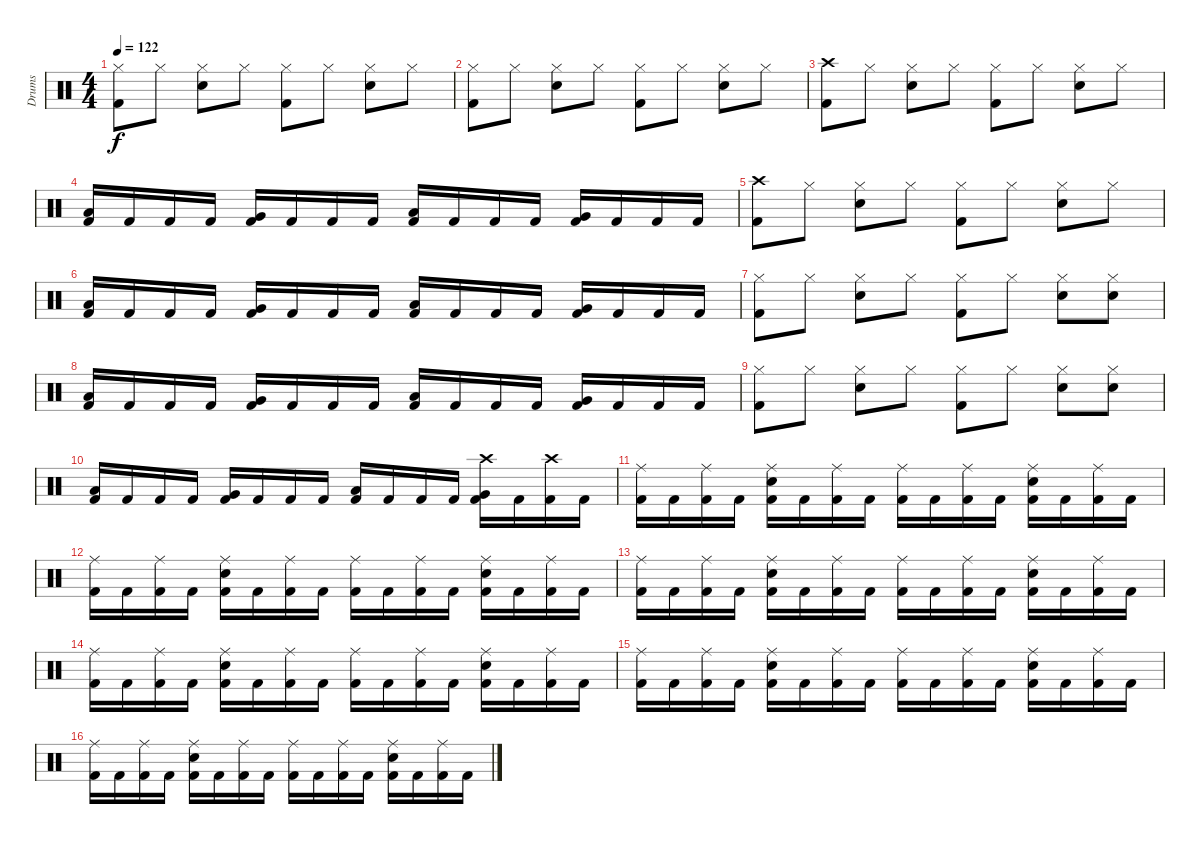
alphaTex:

\track ("Drums" "Drums") {instrument percussion}
\staff {score}
\articulation defaults
\ts (4 4)
\tempo 122
\clef neutral
\ks c
("Hi-Hat (closed)" "Kick (hit) 2").8{dy f} "Hi-Hat (closed)".8 ("Hi-Hat (closed)" "Electric Snare (hit)").8 "Hi-Hat (closed)".8 ("Hi-Hat (closed)" "Kick (hit) 2").8 "Hi-Hat (closed)".8 ("Hi-Hat (closed)" "Electric Snare (hit)").8 "Hi-Hat (closed)".8 |
("Hi-Hat (closed)" "Kick (hit) 2").8 "Hi-Hat (closed)".8 ("Hi-Hat (closed)" "Electric Snare (hit)").8 "Hi-Hat (closed)".8 ("Hi-Hat (closed)" "Kick (hit) 2").8 "Hi-Hat (closed)".8 ("Hi-Hat (closed)" "Electric Snare (hit)").8 "Hi-Hat (closed)".8 |
("Crash high (hit)" "Kick (hit) 2").8 "Hi-Hat (closed)".8 ("Hi-Hat (closed)" "Electric Snare (hit)").8 "Hi-Hat (closed)".8 ("Hi-Hat (closed)" "Kick (hit) 2").8 "Hi-Hat (closed)".8 ("Hi-Hat (closed)" "Electric Snare (hit)").8 "Hi-Hat (closed)".8 |
("Low Floor Tom (hit)" "Kick (hit) 2").16 "Kick (hit) 2".16 "Kick (hit) 2".16 "Kick (hit) 2".16 ("Very Low Tom (hit)" "Kick (hit) 2").16 "Kick (hit) 2".16 "Kick (hit) 2".16 "Kick (hit) 2".16 ("Low Floor Tom (hit)" "Kick (hit) 2").16 "Kick (hit) 2".16 "Kick (hit) 2".16 "Kick (hit) 2".16 ("Very Low Tom (hit)" "Kick (hit) 2").16 "Kick (hit) 2".16 "Kick (hit) 2".16 "Kick (hit) 2".16 |
("Crash high (hit)" "Kick (hit) 2").8 "Hi-Hat (closed)".8 ("Hi-Hat (closed)" "Electric Snare (hit)").8 "Hi-Hat (closed)".8 ("Hi-Hat (closed)" "Kick (hit) 2").8 "Hi-Hat (closed)".8 ("Hi-Hat (closed)" "Electric Snare (hit)").8 "Hi-Hat (closed)".8 |
("Low Floor Tom (hit)" "Kick (hit) 2").16 "Kick (hit) 2".16 "Kick (hit) 2".16 "Kick (hit) 2".16 ("Very Low Tom (hit)" "Kick (hit) 2").16 "Kick (hit) 2".16 "Kick (hit) 2".16 "Kick (hit) 2".16 ("Low Floor Tom (hit)" "Kick (hit) 2").16 "Kick (hit) 2".16 "Kick (hit) 2".16 "Kick (hit) 2".16 ("Very Low Tom (hit)" "Kick (hit) 2").16 "Kick (hit) 2".16 "Kick (hit) 2".16 "Kick (hit) 2".16 |
("Hi-Hat (closed)" "Kick (hit) 2").8 "Hi-Hat (closed)".8 ("Hi-Hat (closed)" "Electric Snare (hit)").8 "Hi-Hat (closed)".8 ("Hi-Hat (closed)" "Kick (hit) 2").8 "Hi-Hat (closed)".8 ("Hi-Hat (closed)" "Electric Snare (hit)").8 ("Hi-Hat (closed)" "Electric Snare (hit)").8 |
("Low Floor Tom (hit)" "Kick (hit) 2").16 "Kick (hit) 2".16 "Kick (hit) 2".16 "Kick (hit) 2".16 ("Very Low Tom (hit)" "Kick (hit) 2").16 "Kick (hit) 2".16 "Kick (hit) 2".16 "Kick (hit) 2".16 ("Low Floor Tom (hit)" "Kick (hit) 2").16 "Kick (hit) 2".16 "Kick (hit) 2".16 "Kick (hit) 2".16 ("Very Low Tom (hit)" "Kick (hit) 2").16 "Kick (hit) 2".16 "Kick (hit) 2".16 "Kick (hit) 2".16 |
("Hi-Hat (closed)" "Kick (hit) 2").8 "Hi-Hat (closed)".8 ("Hi-Hat (closed)" "Electric Snare (hit)").8 "Hi-Hat (closed)".8 ("Hi-Hat (closed)" "Kick (hit) 2").8 "Hi-Hat (closed)".8 ("Hi-Hat (closed)" "Electric Snare (hit)").8 ("Hi-Hat (closed)" "Electric Snare (hit)").8 |
("Low Floor Tom (hit)" "Kick (hit) 2").16 "Kick (hit) 2".16 "Kick (hit) 2".16 "Kick (hit) 2".16 ("Very Low Tom (hit)" "Kick (hit) 2").16 "Kick (hit) 2".16 "Kick (hit) 2".16 "Kick (hit) 2".16 ("Low Floor Tom (hit)" "Kick (hit) 2").16 "Kick (hit) 2".16 "Kick (hit) 2".16 "Kick (hit) 2".16 ("Crash high (hit)" "Very Low Tom (hit)" "Kick (hit) 2").16 "Kick (hit) 2".16 ("Crash high (hit)" "Kick (hit) 2").16 "Kick (hit) 2".16 |
("Ride (middle)" "Kick (hit) 2").16 "Kick (hit) 2".16 ("Ride (middle)" "Kick (hit) 2").16 "Kick (hit) 2".16 ("Ride (middle)" "Electric Snare (hit)" "Kick (hit) 2").16 "Kick (hit) 2".16 ("Ride (middle)" "Kick (hit) 2").16 "Kick (hit) 2".16 ("Ride (middle)" "Kick (hit) 2").16 "Kick (hit) 2".16 ("Ride (middle)" "Kick (hit) 2").16 "Kick (hit) 2".16 ("Ride (middle)" "Electric Snare (hit)" "Kick (hit) 2").16 "Kick (hit) 2".16 ("Ride (middle)" "Kick (hit) 2").16 "Kick (hit) 2".16 |
("Ride (middle)" "Kick (hit) 2").16 "Kick (hit) 2".16 ("Ride (middle)" "Kick (hit) 2").16 "Kick (hit) 2".16 ("Ride (middle)" "Electric Snare (hit)" "Kick (hit) 2").16 "Kick (hit) 2".16 ("Ride (middle)" "Kick (hit) 2").16 "Kick (hit) 2".16 ("Ride (middle)" "Kick (hit) 2").16 "Kick (hit) 2".16 ("Ride (middle)" "Kick (hit) 2").16 "Kick (hit) 2".16 ("Ride (middle)" "Electric Snare (hit)" "Kick (hit) 2").16 "Kick (hit) 2".16 ("Ride (middle)" "Kick (hit) 2").16 "Kick (hit) 2".16 |
("Ride (middle)" "Kick (hit) 2").16 "Kick (hit) 2".16 ("Ride (middle)" "Kick (hit) 2").16 "Kick (hit) 2".16 ("Ride (middle)" "Electric Snare (hit)" "Kick (hit) 2").16 "Kick (hit) 2".16 ("Ride (middle)" "Kick (hit) 2").16 "Kick (hit) 2".16 ("Ride (middle)" "Kick (hit) 2").16 "Kick (hit) 2".16 ("Ride (middle)" "Kick (hit) 2").16 "Kick (hit) 2".16 ("Ride (middle)" "Electric Snare (hit)" "Kick (hit) 2").16 "Kick (hit) 2".16 ("Ride (middle)" "Kick (hit) 2").16 "Kick (hit) 2".16 |
("Ride (middle)" "Kick (hit) 2").16 "Kick (hit) 2".16 ("Ride (middle)" "Kick (hit) 2").16 "Kick (hit) 2".16 ("Ride (middle)" "Electric Snare (hit)" "Kick (hit) 2").16 "Kick (hit) 2".16 ("Ride (middle)" "Kick (hit) 2").16 "Kick (hit) 2".16 ("Ride (middle)" "Kick (hit) 2").16 "Kick (hit) 2".16 ("Ride (middle)" "Kick (hit) 2").16 "Kick (hit) 2".16 ("Ride (middle)" "Electric Snare (hit)" "Kick (hit) 2").16 "Kick (hit) 2".16 ("Ride (middle)" "Kick (hit) 2").16 "Kick (hit) 2".16 |
("Ride (middle)" "Kick (hit) 2").16 "Kick (hit) 2".16 ("Ride (middle)" "Kick (hit) 2").16 "Kick (hit) 2".16 ("Ride (middle)" "Electric Snare (hit)" "Kick (hit) 2").16 "Kick (hit) 2".16 ("Ride (middle)" "Kick (hit) 2").16 "Kick (hit) 2".16 ("Ride (middle)" "Kick (hit) 2").16 "Kick (hit) 2".16 ("Ride (middle)" "Kick (hit) 2").16 "Kick (hit) 2".16 ("Ride (middle)" "Electric Snare (hit)" "Kick (hit) 2").16 "Kick (hit) 2".16 ("Ride (middle)" "Kick (hit) 2").16 "Kick (hit) 2".16 |
("Ride (middle)" "Kick (hit) 2").16 "Kick (hit) 2".16 ("Ride (middle)" "Kick (hit) 2").16 "Kick (hit) 2".16 ("Ride (middle)" "Electric Snare (hit)" "Kick (hit) 2").16 "Kick (hit) 2".16 ("Ride (middle)" "Kick (hit) 2").16 "Kick (hit) 2".16 ("Ride (middle)" "Kick (hit) 2").16 "Kick (hit) 2".16 ("Ride (middle)" "Kick (hit) 2").16 "Kick (hit) 2".16 ("Ride (middle)" "Electric Snare (hit)" "Kick (hit) 2").16 "Kick (hit) 2".16 ("Ride (middle)" "Kick (hit) 2").16 "Kick (hit) 2".16
